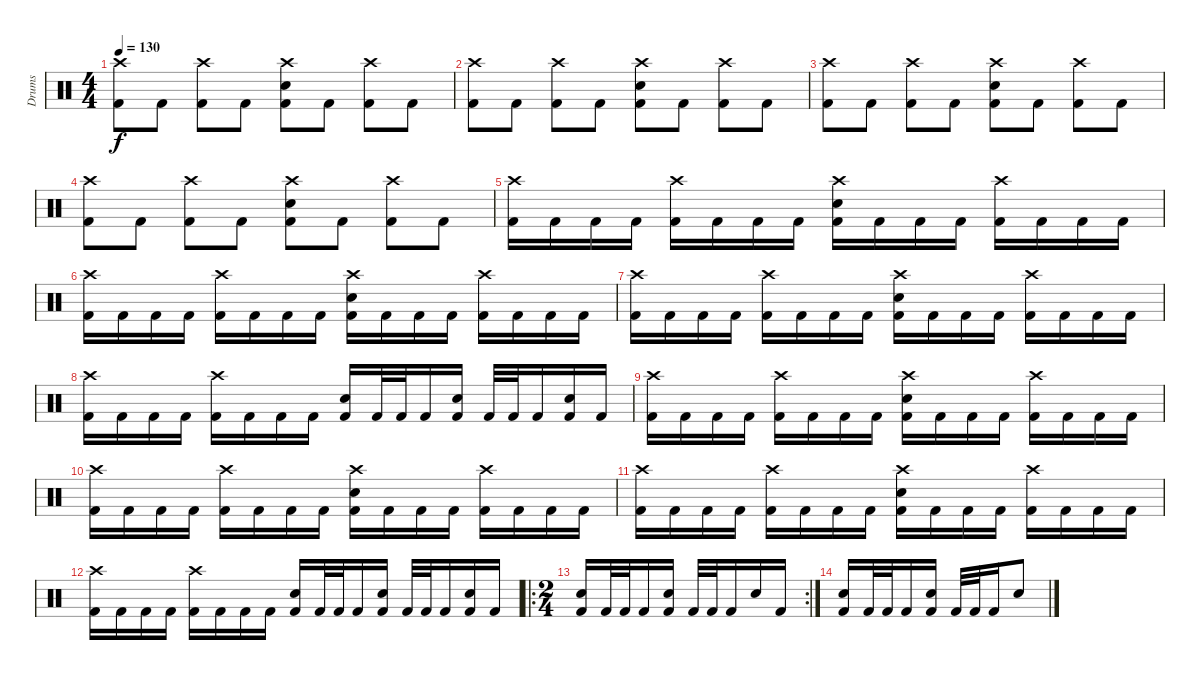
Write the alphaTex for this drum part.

\track ("Drums" "Drums") {instrument percussion}
\staff {score}
\articulation defaults
\ts (4 4)
\tempo 130
\clef neutral
\ks c
("Crash high (hit)" "Kick (hit) 2").8{dy f} "Kick (hit) 2".8 ("Crash high (hit)" "Kick (hit) 2").8 "Kick (hit) 2".8 ("Crash high (hit)" "Snare (hit) 2" "Kick (hit) 2").8 "Kick (hit) 2".8 ("Crash high (hit)" "Kick (hit) 2").8 "Kick (hit) 2".8 |
("Crash high (hit)" "Kick (hit) 2").8 "Kick (hit) 2".8 ("Crash high (hit)" "Kick (hit) 2").8 "Kick (hit) 2".8 ("Crash high (hit)" "Snare (hit) 2" "Kick (hit) 2").8 "Kick (hit) 2".8 ("Crash high (hit)" "Kick (hit) 2").8 "Kick (hit) 2".8 |
("Crash high (hit)" "Kick (hit) 2").8 "Kick (hit) 2".8 ("Crash high (hit)" "Kick (hit) 2").8 "Kick (hit) 2".8 ("Crash high (hit)" "Snare (hit) 2" "Kick (hit) 2").8 "Kick (hit) 2".8 ("Crash high (hit)" "Kick (hit) 2").8 "Kick (hit) 2".8 |
("Crash high (hit)" "Kick (hit) 2").8 "Kick (hit) 2".8 ("Crash high (hit)" "Kick (hit) 2").8 "Kick (hit) 2".8 ("Crash high (hit)" "Snare (hit) 2" "Kick (hit) 2").8 "Kick (hit) 2".8 ("Crash high (hit)" "Kick (hit) 2").8 "Kick (hit) 2".8 |
("Crash high (hit)" "Kick (hit) 2").16 "Kick (hit) 2".16 "Kick (hit) 2".16 "Kick (hit) 2".16 ("Crash high (hit)" "Kick (hit) 2").16 "Kick (hit) 2".16 "Kick (hit) 2".16 "Kick (hit) 2".16 ("Crash high (hit)" "Snare (hit) 2" "Kick (hit) 2").16 "Kick (hit) 2".16 "Kick (hit) 2".16 "Kick (hit) 2".16 ("Crash high (hit)" "Kick (hit) 2").16 "Kick (hit) 2".16 "Kick (hit) 2".16 "Kick (hit) 2".16 |
("Crash high (hit)" "Kick (hit) 2").16 "Kick (hit) 2".16 "Kick (hit) 2".16 "Kick (hit) 2".16 ("Crash high (hit)" "Kick (hit) 2").16 "Kick (hit) 2".16 "Kick (hit) 2".16 "Kick (hit) 2".16 ("Crash high (hit)" "Snare (hit) 2" "Kick (hit) 2").16 "Kick (hit) 2".16 "Kick (hit) 2".16 "Kick (hit) 2".16 ("Crash high (hit)" "Kick (hit) 2").16 "Kick (hit) 2".16 "Kick (hit) 2".16 "Kick (hit) 2".16 |
("Crash high (hit)" "Kick (hit) 2").16 "Kick (hit) 2".16 "Kick (hit) 2".16 "Kick (hit) 2".16 ("Crash high (hit)" "Kick (hit) 2").16 "Kick (hit) 2".16 "Kick (hit) 2".16 "Kick (hit) 2".16 ("Crash high (hit)" "Snare (hit) 2" "Kick (hit) 2").16 "Kick (hit) 2".16 "Kick (hit) 2".16 "Kick (hit) 2".16 ("Crash high (hit)" "Kick (hit) 2").16 "Kick (hit) 2".16 "Kick (hit) 2".16 "Kick (hit) 2".16 |
("Crash high (hit)" "Kick (hit) 2").16 "Kick (hit) 2".16 "Kick (hit) 2".16 "Kick (hit) 2".16 ("Crash high (hit)" "Kick (hit) 2").16 "Kick (hit) 2".16 "Kick (hit) 2".16 "Kick (hit) 2".16 ("Snare (hit) 2" "Kick (hit) 2").16 "Kick (hit) 2".32 "Kick (hit) 2".32 "Kick (hit) 2".16 ("Snare (hit) 2" "Kick (hit) 2").16 "Kick (hit) 2".32 "Kick (hit) 2".32 "Kick (hit) 2".16 ("Snare (hit) 2" "Kick (hit) 2").16 "Kick (hit) 2".16 |
("Crash high (hit)" "Kick (hit) 2").16 "Kick (hit) 2".16 "Kick (hit) 2".16 "Kick (hit) 2".16 ("Crash high (hit)" "Kick (hit) 2").16 "Kick (hit) 2".16 "Kick (hit) 2".16 "Kick (hit) 2".16 ("Crash high (hit)" "Snare (hit) 2" "Kick (hit) 2").16 "Kick (hit) 2".16 "Kick (hit) 2".16 "Kick (hit) 2".16 ("Crash high (hit)" "Kick (hit) 2").16 "Kick (hit) 2".16 "Kick (hit) 2".16 "Kick (hit) 2".16 |
("Crash high (hit)" "Kick (hit) 2").16 "Kick (hit) 2".16 "Kick (hit) 2".16 "Kick (hit) 2".16 ("Crash high (hit)" "Kick (hit) 2").16 "Kick (hit) 2".16 "Kick (hit) 2".16 "Kick (hit) 2".16 ("Crash high (hit)" "Snare (hit) 2" "Kick (hit) 2").16 "Kick (hit) 2".16 "Kick (hit) 2".16 "Kick (hit) 2".16 ("Crash high (hit)" "Kick (hit) 2").16 "Kick (hit) 2".16 "Kick (hit) 2".16 "Kick (hit) 2".16 |
("Crash high (hit)" "Kick (hit) 2").16 "Kick (hit) 2".16 "Kick (hit) 2".16 "Kick (hit) 2".16 ("Crash high (hit)" "Kick (hit) 2").16 "Kick (hit) 2".16 "Kick (hit) 2".16 "Kick (hit) 2".16 ("Crash high (hit)" "Snare (hit) 2" "Kick (hit) 2").16 "Kick (hit) 2".16 "Kick (hit) 2".16 "Kick (hit) 2".16 ("Crash high (hit)" "Kick (hit) 2").16 "Kick (hit) 2".16 "Kick (hit) 2".16 "Kick (hit) 2".16 |
("Crash high (hit)" "Kick (hit) 2").16 "Kick (hit) 2".16 "Kick (hit) 2".16 "Kick (hit) 2".16 ("Crash high (hit)" "Kick (hit) 2").16 "Kick (hit) 2".16 "Kick (hit) 2".16 "Kick (hit) 2".16 ("Snare (hit) 2" "Kick (hit) 2").16 "Kick (hit) 2".32 "Kick (hit) 2".32 "Kick (hit) 2".16 ("Snare (hit) 2" "Kick (hit) 2").16 "Kick (hit) 2".32 "Kick (hit) 2".32 "Kick (hit) 2".16 ("Snare (hit) 2" "Kick (hit) 2").16 "Kick (hit) 2".16 |
\ro
\rc 2
\ts (2 4)
("Snare (hit) 2" "Kick (hit) 2").16 "Kick (hit) 2".32 "Kick (hit) 2".32 "Kick (hit) 2".16 ("Snare (hit) 2" "Kick (hit) 2").16 "Kick (hit) 2".32 "Kick (hit) 2".32 "Kick (hit) 2".16 "Snare (hit) 2".16 "Kick (hit) 2".16 |
("Snare (hit) 2" "Kick (hit) 2").16 "Kick (hit) 2".32 "Kick (hit) 2".32 "Kick (hit) 2".16 ("Snare (hit) 2" "Kick (hit) 2").16 "Kick (hit) 2".32 "Kick (hit) 2".32 "Kick (hit) 2".16 "Snare (hit) 2".8
